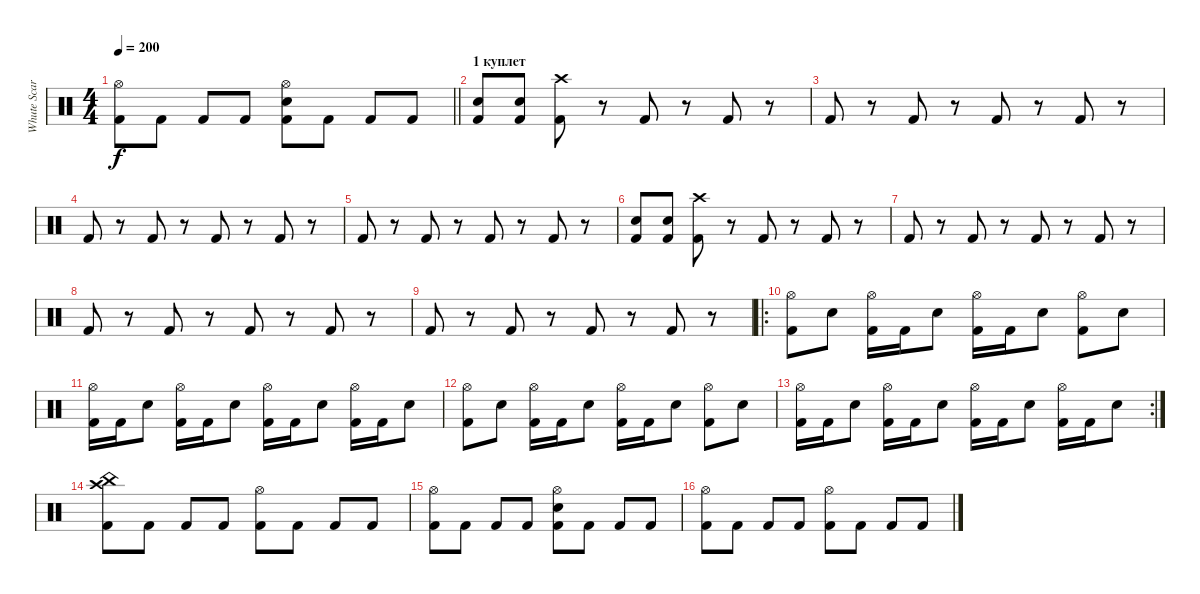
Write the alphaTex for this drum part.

\track ("Whute Scar" "Whute Scar") {instrument percussion}
\staff {score}
\articulation defaults
\ts (4 4)
\tempo 200
\clef neutral
\barLineRight lightlight
\ks c
("Hi-Hat (open)" "Kick (hit) 2").8{dy f} "Kick (hit) 2".8 "Kick (hit) 2".8 "Kick (hit) 2".8 ("Snare (hit) 2" "Hi-Hat (open)" "Kick (hit) 2").8 "Kick (hit) 2".8 "Kick (hit) 2".8 "Kick (hit) 2".8 |
\section ("" "1 куплет")
("Kick (hit) 2" "Snare (hit) 2").8 ("Snare (hit) 2" "Kick (hit) 2").8 ("Kick (hit) 2" "Crash high (hit)").8 r.8 "Kick (hit) 2".8 r.8 "Kick (hit) 2".8 r.8 |
"Kick (hit) 2".8 r.8 "Kick (hit) 2".8 r.8 "Kick (hit) 2".8 r.8 "Kick (hit) 2".8 r.8 |
"Kick (hit) 2".8 r.8 "Kick (hit) 2".8 r.8 "Kick (hit) 2".8 r.8 "Kick (hit) 2".8 r.8 |
"Kick (hit) 2".8 r.8 "Kick (hit) 2".8 r.8 "Kick (hit) 2".8 r.8 "Kick (hit) 2".8 r.8 |
("Kick (hit) 2" "Snare (hit) 2").8 ("Snare (hit) 2" "Kick (hit) 2").8 ("Kick (hit) 2" "Crash high (hit)").8 r.8 "Kick (hit) 2".8 r.8 "Kick (hit) 2".8 r.8 |
"Kick (hit) 2".8 r.8 "Kick (hit) 2".8 r.8 "Kick (hit) 2".8 r.8 "Kick (hit) 2".8 r.8 |
"Kick (hit) 2".8 r.8 "Kick (hit) 2".8 r.8 "Kick (hit) 2".8 r.8 "Kick (hit) 2".8 r.8 |
"Kick (hit) 2".8 r.8 "Kick (hit) 2".8 r.8 "Kick (hit) 2".8 r.8 "Kick (hit) 2".8 r.8 |
\ro
("Kick (hit) 2" "Hi-Hat (open)").8 "Snare (hit) 2".8 ("Kick (hit) 2" "Hi-Hat (open)").16 "Kick (hit) 2".16 "Snare (hit) 2".8 ("Kick (hit) 2" "Hi-Hat (open)").16 "Kick (hit) 2".16 "Snare (hit) 2".8 ("Kick (hit) 2" "Hi-Hat (open)").8 "Snare (hit) 2".8 |
("Kick (hit) 2" "Hi-Hat (open)").16 "Kick (hit) 2".16 "Snare (hit) 2".8 ("Kick (hit) 2" "Hi-Hat (open)").16 "Kick (hit) 2".16 "Snare (hit) 2".8 ("Kick (hit) 2" "Hi-Hat (open)").16 "Kick (hit) 2".16 "Snare (hit) 2".8 ("Kick (hit) 2" "Hi-Hat (open)").16 "Kick (hit) 2".16 "Snare (hit) 2".8 |
("Kick (hit) 2" "Hi-Hat (open)").8 "Snare (hit) 2".8 ("Kick (hit) 2" "Hi-Hat (open)").16 "Kick (hit) 2".16 "Snare (hit) 2".8 ("Kick (hit) 2" "Hi-Hat (open)").16 "Kick (hit) 2".16 "Snare (hit) 2".8 ("Kick (hit) 2" "Hi-Hat (open)").8 "Snare (hit) 2".8 |
\rc 2
("Kick (hit) 2" "Hi-Hat (open)").16 "Kick (hit) 2".16 "Snare (hit) 2".8 ("Kick (hit) 2" "Hi-Hat (open)").16 "Kick (hit) 2".16 "Snare (hit) 2".8 ("Kick (hit) 2" "Hi-Hat (open)").16 "Kick (hit) 2".16 "Snare (hit) 2".8 ("Kick (hit) 2" "Hi-Hat (open)").16 "Kick (hit) 2".16 "Snare (hit) 2".8 |
("Kick (hit) 2" "Crash high (hit)" "China (hit)").8 "Kick (hit) 2".8 "Kick (hit) 2".8 "Kick (hit) 2".8 ("Kick (hit) 2" "Hi-Hat (open)").8 "Kick (hit) 2".8 "Kick (hit) 2".8 "Kick (hit) 2".8 |
("Kick (hit) 2" "Hi-Hat (open)").8 "Kick (hit) 2".8 "Kick (hit) 2".8 "Kick (hit) 2".8 ("Kick (hit) 2" "Snare (hit) 2" "Hi-Hat (open)").8 "Kick (hit) 2".8 "Kick (hit) 2".8 "Kick (hit) 2".8 |
("Kick (hit) 2" "Hi-Hat (open)").8 "Kick (hit) 2".8 "Kick (hit) 2".8 "Kick (hit) 2".8 ("Kick (hit) 2" "Hi-Hat (open)").8 "Kick (hit) 2".8 "Kick (hit) 2".8 "Kick (hit) 2".8
